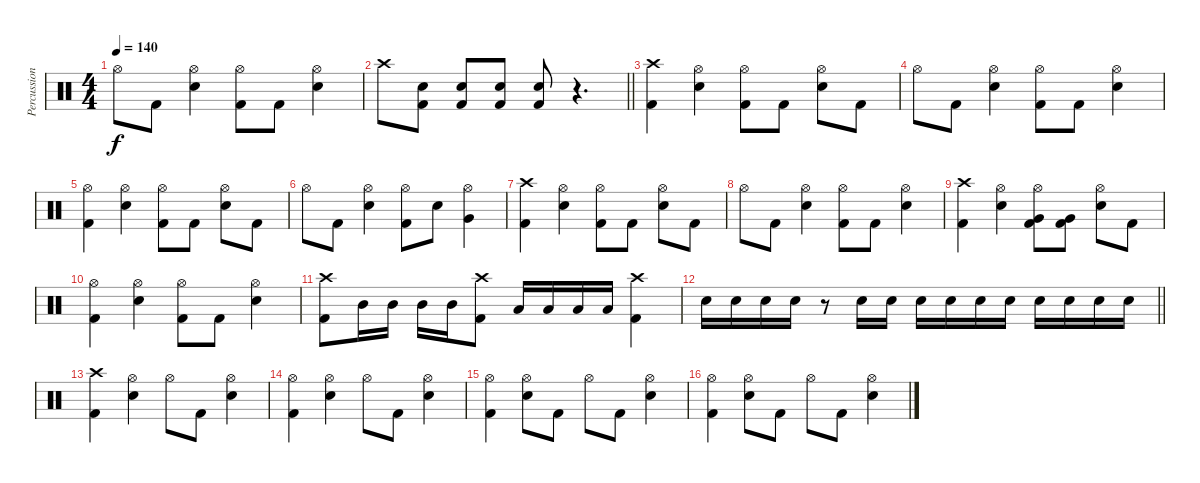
\track ("Percussion" "Percussion") {instrument percussion}
\staff {score}
\articulation defaults
\ts (4 4)
\tempo 140
\clef neutral
\ks c "Hi-Hat (open)".8{dy f} "Kick (hit) 2".8
("Hi-Hat (open)" "Snare (hit) 2").4 ("Hi-Hat (open)" "Kick (hit) 2").8 "Kick (hit) 2".8 ("Hi-Hat (open)" "Snare (hit) 2").4 |
\barLineRight lightlight "Crash high (hit)".8
("Snare (hit) 2" "Kick (hit) 2").8 ("Snare (hit) 2" "Kick (hit) 2").8 ("Snare (hit) 2" "Kick (hit) 2").8 ("Snare (hit) 2" "Kick (hit) 2").8 r.4{d} |
("Crash high (hit)" "Kick (hit) 2").4 ("Hi-Hat (open)" "Snare (hit) 2").4 ("Hi-Hat (open)" "Kick (hit) 2").8 "Kick (hit) 2".8 ("Hi-Hat (open)" "Snare (hit) 2").8 "Kick (hit) 2".8 |
"Hi-Hat (open)".8 "Kick (hit) 2".8 ("Hi-Hat (open)" "Snare (hit) 2").4 ("Hi-Hat (open)" "Kick (hit) 2").8 "Kick (hit) 2".8 ("Hi-Hat (open)" "Snare (hit) 2").4 |
("Hi-Hat (open)" "Kick (hit) 2").4 ("Hi-Hat (open)" "Snare (hit) 2").4 ("Hi-Hat (open)" "Kick (hit) 2").8 "Kick (hit) 2".8 ("Hi-Hat (open)" "Snare (hit) 2").8 "Kick (hit) 2".8 |
"Hi-Hat (open)".8 "Kick (hit) 2".8 ("Hi-Hat (open)" "Snare (hit) 2").4 ("Hi-Hat (open)" "Kick (hit) 2").8 "Snare (hit) 2".8 ("Hi-Hat (open)" "Very Low Tom (hit)").4 |
("Crash high (hit)" "Kick (hit) 2").4 ("Hi-Hat (open)" "Snare (hit) 2").4 ("Hi-Hat (open)" "Kick (hit) 2").8 "Kick (hit) 2".8 ("Hi-Hat (open)" "Snare (hit) 2").8 "Kick (hit) 2".8 |
"Hi-Hat (open)".8 "Kick (hit) 2".8 ("Hi-Hat (open)" "Snare (hit) 2").4 ("Hi-Hat (open)" "Kick (hit) 2").8 "Kick (hit) 2".8 ("Hi-Hat (open)" "Snare (hit) 2").4 |
("Crash high (hit)" "Kick (hit) 2").4 ("Hi-Hat (open)" "Snare (hit) 2").4 ("Hi-Hat (open)" "Very Low Tom (hit)" "Kick (hit) 2").8 ("Very Low Tom (hit)" "Kick (hit) 2").8 ("Hi-Hat (open)" "Snare (hit) 2").8 "Kick (hit) 2".8 |
("Hi-Hat (open)" "Kick (hit) 2").4 ("Hi-Hat (open)" "Snare (hit) 2").4 ("Hi-Hat (open)" "Kick (hit) 2").8 "Kick (hit) 2".8 ("Hi-Hat (open)" "Snare (hit) 2").4 |
("Crash high (hit)" "Kick (hit) 2").8 "Mid Tom (hit)".16 "Mid Tom (hit)".16 "Mid Tom (hit)".16 "Mid Tom (hit)".16 ("Crash high (hit)" "Kick (hit) 2").8 "Low Tom (hit)".16 "Low Tom (hit)".16 "Low Tom (hit)".16 "Low Tom (hit)".16 ("Crash high (hit)" "Kick (hit) 2").4 |
\barLineRight lightlight "Snare (hit) 2".16 "Snare (hit) 2".16 "Snare (hit) 2".16 "Snare (hit) 2".16
r.8 "Snare (hit) 2".16 "Snare (hit) 2".16 "Snare (hit) 2".16 "Snare (hit) 2".16 "Snare (hit) 2".16 "Snare (hit) 2".16 "Snare (hit) 2".16 "Snare (hit) 2".16 "Snare (hit) 2".16 "Snare (hit) 2".16 |
("Crash high (hit)" "Kick (hit) 2").4 ("Hi-Hat (open)" "Snare (hit) 2").4 "Hi-Hat (open)".8 "Kick (hit) 2".8 ("Hi-Hat (open)" "Snare (hit) 2").4 |
("Hi-Hat (open)" "Kick (hit) 2").4 ("Hi-Hat (open)" "Snare (hit) 2").4 "Hi-Hat (open)".8 "Kick (hit) 2".8 ("Hi-Hat (open)" "Snare (hit) 2").4 |
("Hi-Hat (open)" "Kick (hit) 2").4 ("Hi-Hat (open)" "Snare (hit) 2").8 "Kick (hit) 2".8 "Hi-Hat (open)".8 "Kick (hit) 2".8 ("Hi-Hat (open)" "Snare (hit) 2").4 |
("Hi-Hat (open)" "Kick (hit) 2").4 ("Hi-Hat (open)" "Snare (hit) 2").8 "Kick (hit) 2".8 "Hi-Hat (open)".8 "Kick (hit) 2".8 ("Hi-Hat (open)" "Snare (hit) 2").4
